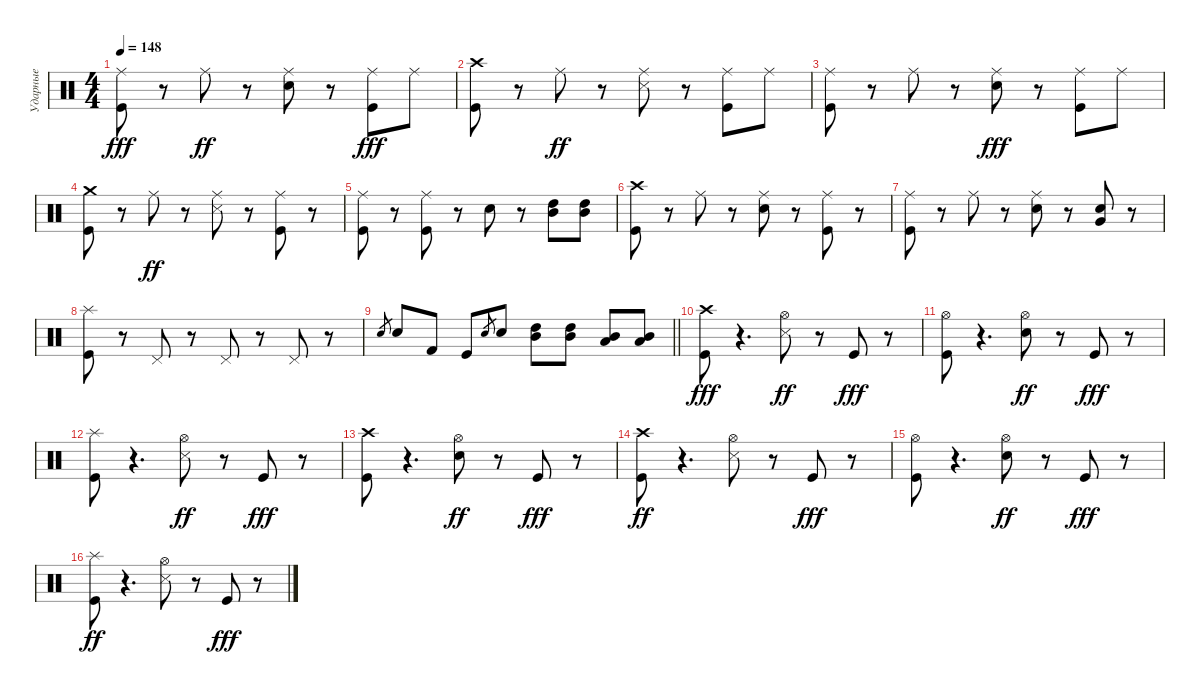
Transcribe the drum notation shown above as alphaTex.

\track ("Ударные" "Ударные") {instrument percussion}
\staff {score}
\articulation defaults
\ts (4 4)
\tempo 148
\clef neutral
\ks c
("Kick (hit)" "Ride (middle)").8{dy fff} r.8 "Ride (middle)".8{dy ff} r.8 ("Ride (middle)" "Snare (hit) 2").8 r.8 ("Kick (hit)" "Ride (middle)").8{dy fff} "Ride (middle)".8 |
("Kick (hit)" "Crash high (hit)").8 r.8 "Ride (middle)".8{dy ff} r.8 ("Ride (middle)" "Snare (side stick) 3").8 r.8 ("Kick (hit)" "Ride (middle)").8 "Ride (middle)".8 |
("Kick (hit)" "Ride (middle)").8 r.8 "Ride (middle)".8 r.8 ("Ride (middle)" "Snare (hit) 2").8{dy fff} r.8 ("Ride (middle)" "Kick (hit)").8 "Ride (middle)".8 |
("Crash medium (hit)" "Kick (hit)").8 r.8 "Ride (middle)".8{dy ff} r.8 ("Snare (side stick) 3" "Ride (middle)").8 r.8 ("Kick (hit)" "Ride (middle)").8 r.8 |
("Kick (hit)" "Ride (middle)").8 r.8 ("Kick (hit)" "Ride (middle)").8 r.8 "Snare (hit) 2".8 r.8 ("Mid Tom (hit)" "High Tom (hit)").8 ("Mid Tom (hit)" "High Tom (hit)").8 |
("Crash high (hit)" "Kick (hit)").8 r.8 "Ride (middle)".8 r.8 ("Snare (hit) 2" "Ride (middle)").8 r.8 ("Ride (middle)" "Kick (hit)").8 r.8 |
("Ride (middle)" "Kick (hit)").8 r.8 "Ride (middle)".8 r.8 ("Ride (middle)" "Snare (hit) 2").8 r.8 ("Very Low Tom (hit)" "Snare (hit) 2").8 r.8 |
("Splash (hit)" "Kick (hit)").8 r.8 "Pedal Hi-Hat (hit)".8 r.8 "Pedal Hi-Hat (hit)".8 r.8 "Pedal Hi-Hat (hit)".8 r.8 |
\barLineRight lightlight "Snare (hit) 2".8{gr} "Snare (hit) 2".8 "Kick (hit) 2".8 "Kick (hit)".8 "Snare (hit) 2".8{gr} "Snare (hit) 2".8
("Mid Tom (hit)" "High Tom (hit)").8 ("High Tom (hit)" "Mid Tom (hit)").8 ("Low Tom (hit)" "Mid Tom (hit)").8 ("Low Tom (hit)" "Mid Tom (hit)").8 |
("Crash high (hit)" "Kick (hit)").8{dy fff} r.4{d} ("Hi-Hat (open)" "Snare (side stick) 3").8{dy ff} r.8 "Kick (hit)".8{dy fff} r.8 |
("Hi-Hat (open)" "Kick (hit)").8 r.4{d} ("Hi-Hat (open)" "Snare (hit) 2").8{dy ff} r.8 "Kick (hit)".8{dy fff} r.8 |
("Splash (hit)" "Kick (hit)").8 r.4{d} ("Hi-Hat (open)" "Snare (side stick) 3").8{dy ff} r.8 "Kick (hit)".8{dy fff} r.8 |
("Crash high (hit)" "Kick (hit)").8 r.4{d} ("Hi-Hat (open)" "Snare (hit) 2").8{dy ff} r.8 "Kick (hit)".8{dy fff} r.8 |
("Kick (hit)" "Crash high (hit)").8{dy ff} r.4{d} ("Snare (side stick) 3" "Hi-Hat (open)").8 r.8 "Kick (hit)".8{dy fff} r.8 |
("Hi-Hat (open)" "Kick (hit)").8 r.4{d} ("Hi-Hat (open)" "Snare (hit) 2").8{dy ff} r.8 "Kick (hit)".8{dy fff} r.8 |
("Kick (hit)" "Splash (hit)").8{dy ff} r.4{d} ("Snare (side stick) 3" "Hi-Hat (open)").8 r.8 "Kick (hit)".8{dy fff} r.8
